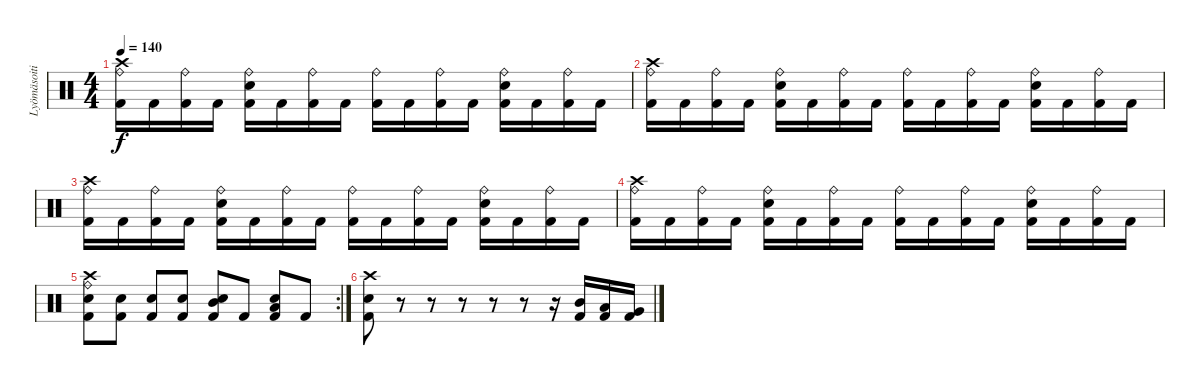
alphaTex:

\track ("Lyömäsoitin" "Lyömäsoiti") {instrument percussion}
\staff {score}
\articulation defaults
\ts (4 4)
\tempo 140
\clef neutral
\ks c
("Crash high (hit)" "Ride (bell)" "Kick (hit) 2").16{dy f} "Kick (hit) 2".16 ("Ride (bell)" "Kick (hit) 2").16 "Kick (hit) 2".16 ("Ride (bell)" "Electric Snare (hit)" "Kick (hit) 2").16 "Kick (hit) 2".16 ("Ride (bell)" "Kick (hit) 2").16 "Kick (hit) 2".16 ("Ride (bell)" "Kick (hit) 2").16 "Kick (hit) 2".16 ("Ride (bell)" "Kick (hit) 2").16 "Kick (hit) 2".16 ("Ride (bell)" "Electric Snare (hit)" "Kick (hit) 2").16 "Kick (hit) 2".16 ("Ride (bell)" "Kick (hit) 2").16 "Kick (hit) 2".16 |
("Crash high (hit)" "Ride (bell)" "Kick (hit) 2").16 "Kick (hit) 2".16 ("Ride (bell)" "Kick (hit) 2").16 "Kick (hit) 2".16 ("Ride (bell)" "Electric Snare (hit)" "Kick (hit) 2").16 "Kick (hit) 2".16 ("Ride (bell)" "Kick (hit) 2").16 "Kick (hit) 2".16 ("Ride (bell)" "Kick (hit) 2").16 "Kick (hit) 2".16 ("Ride (bell)" "Kick (hit) 2").16 "Kick (hit) 2".16 ("Ride (bell)" "Electric Snare (hit)" "Kick (hit) 2").16 "Kick (hit) 2".16 ("Ride (bell)" "Kick (hit) 2").16 "Kick (hit) 2".16 |
("Crash high (hit)" "Ride (bell)" "Kick (hit) 2").16 "Kick (hit) 2".16 ("Ride (bell)" "Kick (hit) 2").16 "Kick (hit) 2".16 ("Ride (bell)" "Electric Snare (hit)" "Kick (hit) 2").16 "Kick (hit) 2".16 ("Ride (bell)" "Kick (hit) 2").16 "Kick (hit) 2".16 ("Ride (bell)" "Kick (hit) 2").16 "Kick (hit) 2".16 ("Ride (bell)" "Kick (hit) 2").16 "Kick (hit) 2".16 ("Ride (bell)" "Electric Snare (hit)" "Kick (hit) 2").16 "Kick (hit) 2".16 ("Ride (bell)" "Kick (hit) 2").16 "Kick (hit) 2".16 |
("Crash high (hit)" "Ride (bell)" "Kick (hit) 2").16 "Kick (hit) 2".16 ("Ride (bell)" "Kick (hit) 2").16 "Kick (hit) 2".16 ("Ride (bell)" "Electric Snare (hit)" "Kick (hit) 2").16 "Kick (hit) 2".16 ("Ride (bell)" "Kick (hit) 2").16 "Kick (hit) 2".16 ("Ride (bell)" "Kick (hit) 2").16 "Kick (hit) 2".16 ("Ride (bell)" "Kick (hit) 2").16 "Kick (hit) 2".16 ("Ride (bell)" "Electric Snare (hit)" "Kick (hit) 2").16 "Kick (hit) 2".16 ("Ride (bell)" "Kick (hit) 2").16 "Kick (hit) 2".16 |
\rc 2
("Crash high (hit)" "Ride (bell)" "Electric Snare (hit)" "Kick (hit) 2").8 ("Electric Snare (hit)" "Kick (hit) 2").8 ("Electric Snare (hit)" "Kick (hit) 2").8 ("Electric Snare (hit)" "Kick (hit) 2").8 ("Mid Tom (hit)" "Electric Snare (hit)" "Kick (hit) 2").8 "Kick (hit) 2".8 ("Low Tom (hit)" "Electric Snare (hit)" "Kick (hit) 2").8 "Kick (hit) 2".8 |
("Crash high (hit)" "Electric Snare (hit)" "Kick (hit) 2").8 r.8 r.8 r.8 r.8 r.8 r.16 ("Mid Tom (hit)" "Kick (hit) 2").16 ("Low Tom (hit)" "Kick (hit) 2").16 ("Very Low Tom (hit)" "Kick (hit) 2").16
